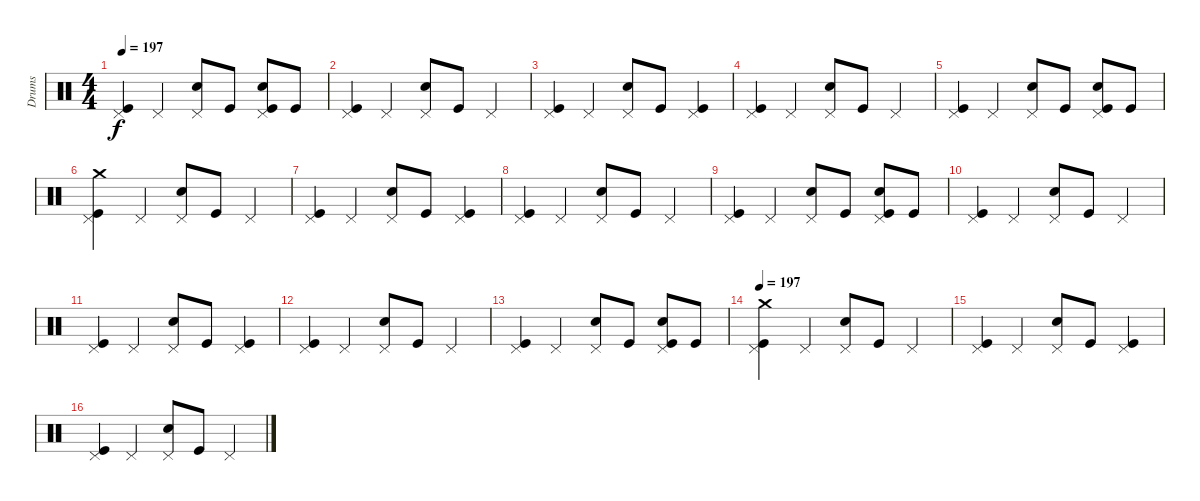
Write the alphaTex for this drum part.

\track ("Drums" "Drums") {instrument percussion}
\staff {score}
\articulation defaults
\ts (4 4)
\tempo 197
\clef neutral
\ks c
("Pedal Hi-Hat (hit)" "Kick (hit)").4{dy f} "Pedal Hi-Hat (hit)".4 ("Pedal Hi-Hat (hit)" "Snare (hit) 2").8 "Kick (hit)".8 ("Pedal Hi-Hat (hit)" "Snare (hit) 2" "Kick (hit)").8 "Kick (hit)".8 |
("Pedal Hi-Hat (hit)" "Kick (hit)").4 "Pedal Hi-Hat (hit)".4 ("Pedal Hi-Hat (hit)" "Snare (hit) 2").8 "Kick (hit)".8 "Pedal Hi-Hat (hit)".4 |
("Pedal Hi-Hat (hit)" "Kick (hit)").4 "Pedal Hi-Hat (hit)".4 ("Pedal Hi-Hat (hit)" "Snare (hit) 2").8 "Kick (hit)".8 ("Pedal Hi-Hat (hit)" "Kick (hit)").4 |
("Pedal Hi-Hat (hit)" "Kick (hit)").4 "Pedal Hi-Hat (hit)".4 ("Pedal Hi-Hat (hit)" "Snare (hit) 2").8 "Kick (hit)".8 "Pedal Hi-Hat (hit)".4 |
("Pedal Hi-Hat (hit)" "Kick (hit)").4 "Pedal Hi-Hat (hit)".4 ("Pedal Hi-Hat (hit)" "Snare (hit) 2").8 "Kick (hit)".8 ("Pedal Hi-Hat (hit)" "Snare (hit) 2" "Kick (hit)").8 "Kick (hit)".8 |
("Crash medium (hit)" "Pedal Hi-Hat (hit)" "Kick (hit)").4{volume 16} "Pedal Hi-Hat (hit)".4 ("Pedal Hi-Hat (hit)" "Snare (hit) 2").8 "Kick (hit)".8 "Pedal Hi-Hat (hit)".4 |
("Pedal Hi-Hat (hit)" "Kick (hit)").4 "Pedal Hi-Hat (hit)".4 ("Pedal Hi-Hat (hit)" "Snare (hit) 2").8 "Kick (hit)".8 ("Pedal Hi-Hat (hit)" "Kick (hit)").4 |
("Pedal Hi-Hat (hit)" "Kick (hit)").4 "Pedal Hi-Hat (hit)".4 ("Pedal Hi-Hat (hit)" "Snare (hit) 2").8 "Kick (hit)".8 "Pedal Hi-Hat (hit)".4 |
("Pedal Hi-Hat (hit)" "Kick (hit)").4 "Pedal Hi-Hat (hit)".4 ("Pedal Hi-Hat (hit)" "Snare (hit) 2").8 "Kick (hit)".8 ("Pedal Hi-Hat (hit)" "Snare (hit) 2" "Kick (hit)").8 "Kick (hit)".8 |
("Pedal Hi-Hat (hit)" "Kick (hit)").4 "Pedal Hi-Hat (hit)".4 ("Pedal Hi-Hat (hit)" "Snare (hit) 2").8 "Kick (hit)".8 "Pedal Hi-Hat (hit)".4 |
("Pedal Hi-Hat (hit)" "Kick (hit)").4 "Pedal Hi-Hat (hit)".4 ("Pedal Hi-Hat (hit)" "Snare (hit) 2").8 "Kick (hit)".8 ("Pedal Hi-Hat (hit)" "Kick (hit)").4 |
("Pedal Hi-Hat (hit)" "Kick (hit)").4 "Pedal Hi-Hat (hit)".4 ("Pedal Hi-Hat (hit)" "Snare (hit) 2").8 "Kick (hit)".8 "Pedal Hi-Hat (hit)".4 |
("Pedal Hi-Hat (hit)" "Kick (hit)").4 "Pedal Hi-Hat (hit)".4 ("Pedal Hi-Hat (hit)" "Snare (hit) 2").8 "Kick (hit)".8 ("Pedal Hi-Hat (hit)" "Snare (hit) 2" "Kick (hit)").8 "Kick (hit)".8 |
\tempo 197
("Crash medium (hit)" "Pedal Hi-Hat (hit)" "Kick (hit)").4{volume 16} "Pedal Hi-Hat (hit)".4 ("Pedal Hi-Hat (hit)" "Snare (hit) 2").8 "Kick (hit)".8 "Pedal Hi-Hat (hit)".4 |
("Pedal Hi-Hat (hit)" "Kick (hit)").4 "Pedal Hi-Hat (hit)".4 ("Pedal Hi-Hat (hit)" "Snare (hit) 2").8 "Kick (hit)".8 ("Pedal Hi-Hat (hit)" "Kick (hit)").4 |
("Pedal Hi-Hat (hit)" "Kick (hit)").4 "Pedal Hi-Hat (hit)".4 ("Pedal Hi-Hat (hit)" "Snare (hit) 2").8 "Kick (hit)".8 "Pedal Hi-Hat (hit)".4
